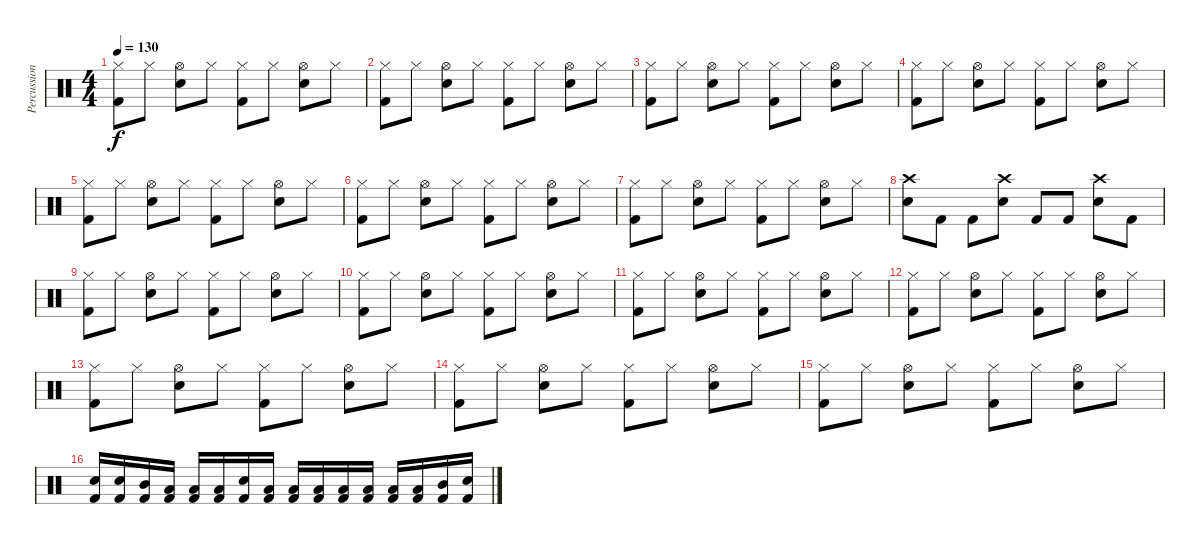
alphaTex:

\track ("Percussion" "Percussion") {instrument percussion}
\staff {score}
\articulation defaults
\ts (4 4)
\tempo 130
\clef neutral
\ks c
("Hi-Hat (closed)" "Kick (hit) 2").8{dy f} "Hi-Hat (closed)".8 ("Hi-Hat (open)" "Electric Snare (hit)").8 "Hi-Hat (closed)".8 ("Hi-Hat (closed)" "Kick (hit) 2").8 "Hi-Hat (closed)".8 ("Hi-Hat (open)" "Electric Snare (hit)").8 "Hi-Hat (closed)".8 |
("Hi-Hat (closed)" "Kick (hit) 2").8 "Hi-Hat (closed)".8 ("Hi-Hat (open)" "Electric Snare (hit)").8 "Hi-Hat (closed)".8 ("Hi-Hat (closed)" "Kick (hit) 2").8 "Hi-Hat (closed)".8 ("Hi-Hat (open)" "Electric Snare (hit)").8 "Hi-Hat (closed)".8 |
("Hi-Hat (closed)" "Kick (hit) 2").8 "Hi-Hat (closed)".8 ("Hi-Hat (open)" "Electric Snare (hit)").8 "Hi-Hat (closed)".8 ("Hi-Hat (closed)" "Kick (hit) 2").8 "Hi-Hat (closed)".8 ("Hi-Hat (open)" "Electric Snare (hit)").8 "Hi-Hat (closed)".8 |
("Hi-Hat (closed)" "Kick (hit) 2").8 "Hi-Hat (closed)".8 ("Hi-Hat (open)" "Electric Snare (hit)").8 "Hi-Hat (closed)".8 ("Hi-Hat (closed)" "Kick (hit) 2").8 "Hi-Hat (closed)".8 ("Hi-Hat (open)" "Electric Snare (hit)").8 "Hi-Hat (closed)".8 |
("Hi-Hat (closed)" "Kick (hit) 2").8 "Hi-Hat (closed)".8 ("Hi-Hat (open)" "Electric Snare (hit)").8 "Hi-Hat (closed)".8 ("Hi-Hat (closed)" "Kick (hit) 2").8 "Hi-Hat (closed)".8 ("Hi-Hat (open)" "Electric Snare (hit)").8 "Hi-Hat (closed)".8 |
("Hi-Hat (closed)" "Kick (hit) 2").8 "Hi-Hat (closed)".8 ("Hi-Hat (open)" "Electric Snare (hit)").8 "Hi-Hat (closed)".8 ("Hi-Hat (closed)" "Kick (hit) 2").8 "Hi-Hat (closed)".8 ("Hi-Hat (open)" "Electric Snare (hit)").8 "Hi-Hat (closed)".8 |
("Hi-Hat (closed)" "Kick (hit) 2").8 "Hi-Hat (closed)".8 ("Hi-Hat (open)" "Electric Snare (hit)").8 "Hi-Hat (closed)".8 ("Hi-Hat (closed)" "Kick (hit) 2").8 "Hi-Hat (closed)".8 ("Hi-Hat (open)" "Electric Snare (hit)").8 "Hi-Hat (closed)".8 |
("Crash high (hit)" "Electric Snare (hit)").8 "Kick (hit) 2".8 "Kick (hit) 2".8 ("Crash high (hit)" "Electric Snare (hit)").8 "Kick (hit) 2".8 "Kick (hit) 2".8 ("Crash high (hit)" "Electric Snare (hit)").8 "Kick (hit) 2".8 |
("Hi-Hat (closed)" "Kick (hit) 2").8 "Hi-Hat (closed)".8 ("Hi-Hat (open)" "Electric Snare (hit)").8 "Hi-Hat (closed)".8 ("Hi-Hat (closed)" "Kick (hit) 2").8 "Hi-Hat (closed)".8 ("Hi-Hat (open)" "Electric Snare (hit)").8 "Hi-Hat (closed)".8 |
("Hi-Hat (closed)" "Kick (hit) 2").8 "Hi-Hat (closed)".8 ("Hi-Hat (open)" "Electric Snare (hit)").8 "Hi-Hat (closed)".8 ("Hi-Hat (closed)" "Kick (hit) 2").8 "Hi-Hat (closed)".8 ("Hi-Hat (open)" "Electric Snare (hit)").8 "Hi-Hat (closed)".8 |
("Hi-Hat (closed)" "Kick (hit) 2").8 "Hi-Hat (closed)".8 ("Hi-Hat (open)" "Electric Snare (hit)").8 "Hi-Hat (closed)".8 ("Hi-Hat (closed)" "Kick (hit) 2").8 "Hi-Hat (closed)".8 ("Hi-Hat (open)" "Electric Snare (hit)").8 "Hi-Hat (closed)".8 |
("Hi-Hat (closed)" "Kick (hit) 2").8 "Hi-Hat (closed)".8 ("Hi-Hat (open)" "Electric Snare (hit)").8 "Hi-Hat (closed)".8 ("Hi-Hat (closed)" "Kick (hit) 2").8 "Hi-Hat (closed)".8 ("Hi-Hat (open)" "Electric Snare (hit)").8 "Hi-Hat (closed)".8 |
("Hi-Hat (closed)" "Kick (hit) 2").8 "Hi-Hat (closed)".8 ("Hi-Hat (open)" "Electric Snare (hit)").8 "Hi-Hat (closed)".8 ("Hi-Hat (closed)" "Kick (hit) 2").8 "Hi-Hat (closed)".8 ("Hi-Hat (open)" "Electric Snare (hit)").8 "Hi-Hat (closed)".8 |
("Hi-Hat (closed)" "Kick (hit) 2").8 "Hi-Hat (closed)".8 ("Hi-Hat (open)" "Electric Snare (hit)").8 "Hi-Hat (closed)".8 ("Hi-Hat (closed)" "Kick (hit) 2").8 "Hi-Hat (closed)".8 ("Hi-Hat (open)" "Electric Snare (hit)").8 "Hi-Hat (closed)".8 |
("Hi-Hat (closed)" "Kick (hit) 2").8 "Hi-Hat (closed)".8 ("Hi-Hat (open)" "Electric Snare (hit)").8 "Hi-Hat (closed)".8 ("Hi-Hat (closed)" "Kick (hit) 2").8 "Hi-Hat (closed)".8 ("Hi-Hat (open)" "Electric Snare (hit)").8 "Hi-Hat (closed)".8 |
("Electric Snare (hit)" "Kick (hit) 2").16 ("Electric Snare (hit)" "Kick (hit) 2").16 ("Mid Tom (hit)" "Kick (hit) 2").16 ("Low Tom (hit)" "Kick (hit) 2").16 ("Low Tom (hit)" "Kick (hit) 2").16 ("Low Tom (hit)" "Kick (hit) 2").16 ("Electric Snare (hit)" "Kick (hit) 2").16 ("Low Tom (hit)" "Kick (hit) 2").16 ("Low Tom (hit)" "Kick (hit) 2").16 ("Low Tom (hit)" "Kick (hit) 2").16 ("Low Tom (hit)" "Kick (hit) 2").16 ("Low Tom (hit)" "Kick (hit) 2").16 ("Low Tom (hit)" "Kick (hit) 2").16 ("Low Tom (hit)" "Kick (hit) 2").16 ("Mid Tom (hit)" "Kick (hit) 2").16 ("Electric Snare (hit)" "Kick (hit) 2").16
